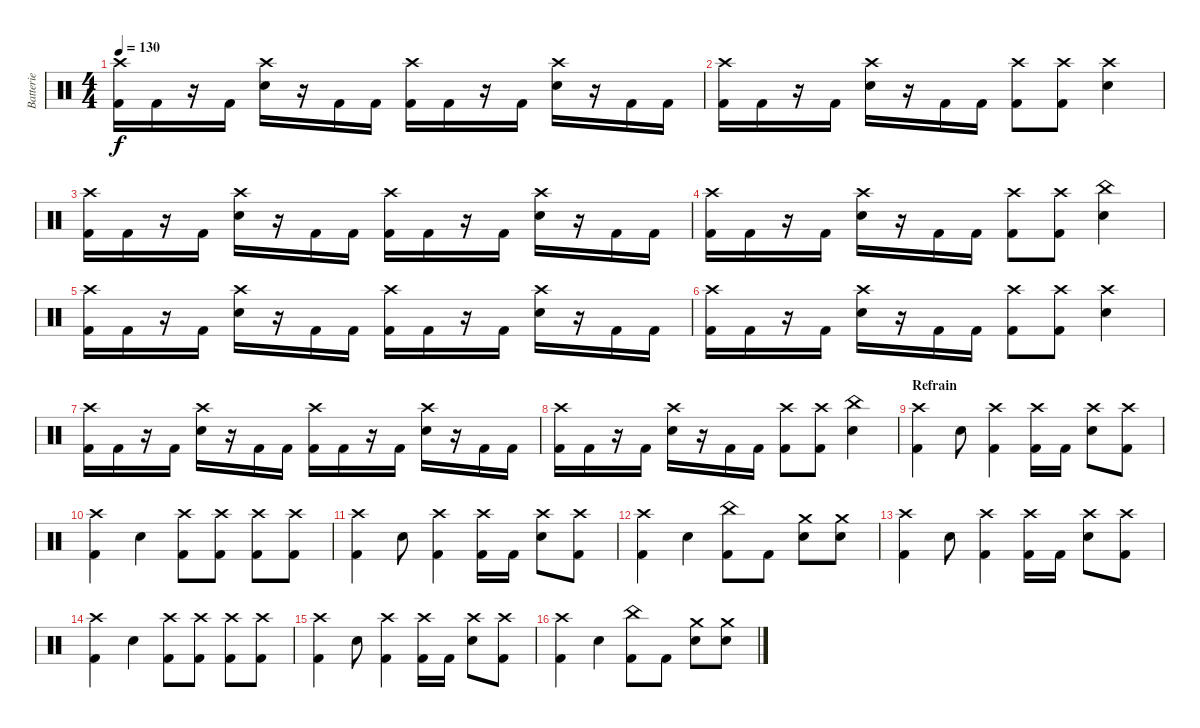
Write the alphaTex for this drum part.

\track ("Batterie" "Batterie") {instrument percussion}
\staff {score}
\articulation defaults
\ts (4 4)
\tempo 130
\clef neutral
\ks c
("Crash high (hit)" "Kick (hit) 2").16{dy f} "Kick (hit) 2".16 r.16 "Kick (hit) 2".16 ("Crash high (hit)" "Electric Snare (hit)").16 r.16 "Kick (hit) 2".16 "Kick (hit) 2".16 ("Crash high (hit)" "Kick (hit) 2").16 "Kick (hit) 2".16 r.16 "Kick (hit) 2".16 ("Crash high (hit)" "Electric Snare (hit)").16 r.16 "Kick (hit) 2".16 "Kick (hit) 2".16 |
("Crash high (hit)" "Kick (hit) 2").16 "Kick (hit) 2".16 r.16 "Kick (hit) 2".16 ("Crash high (hit)" "Electric Snare (hit)").16 r.16 "Kick (hit) 2".16 "Kick (hit) 2".16 ("Crash high (hit)" "Kick (hit) 2").8 ("Crash high (hit)" "Kick (hit) 2").8 ("Crash high (hit)" "Electric Snare (hit)").4 |
("Crash high (hit)" "Kick (hit) 2").16 "Kick (hit) 2".16 r.16 "Kick (hit) 2".16 ("Crash high (hit)" "Electric Snare (hit)").16 r.16 "Kick (hit) 2".16 "Kick (hit) 2".16 ("Crash high (hit)" "Kick (hit) 2").16 "Kick (hit) 2".16 r.16 "Kick (hit) 2".16 ("Crash high (hit)" "Electric Snare (hit)").16 r.16 "Kick (hit) 2".16 "Kick (hit) 2".16 |
("Crash high (hit)" "Kick (hit) 2").16 "Kick (hit) 2".16 r.16 "Kick (hit) 2".16 ("Crash high (hit)" "Electric Snare (hit)").16 r.16 "Kick (hit) 2".16 "Kick (hit) 2".16 ("Crash high (hit)" "Kick (hit) 2").8 ("Crash high (hit)" "Kick (hit) 2").8 ("China (hit)" "Electric Snare (hit)").4 |
("Crash high (hit)" "Kick (hit) 2").16 "Kick (hit) 2".16 r.16 "Kick (hit) 2".16 ("Crash high (hit)" "Electric Snare (hit)").16 r.16 "Kick (hit) 2".16 "Kick (hit) 2".16 ("Crash high (hit)" "Kick (hit) 2").16 "Kick (hit) 2".16 r.16 "Kick (hit) 2".16 ("Crash high (hit)" "Electric Snare (hit)").16 r.16 "Kick (hit) 2".16 "Kick (hit) 2".16 |
("Crash high (hit)" "Kick (hit) 2").16 "Kick (hit) 2".16 r.16 "Kick (hit) 2".16 ("Crash high (hit)" "Electric Snare (hit)").16 r.16 "Kick (hit) 2".16 "Kick (hit) 2".16 ("Crash high (hit)" "Kick (hit) 2").8 ("Crash high (hit)" "Kick (hit) 2").8 ("Crash high (hit)" "Electric Snare (hit)").4 |
("Crash high (hit)" "Kick (hit) 2").16 "Kick (hit) 2".16 r.16 "Kick (hit) 2".16 ("Crash high (hit)" "Electric Snare (hit)").16 r.16 "Kick (hit) 2".16 "Kick (hit) 2".16 ("Crash high (hit)" "Kick (hit) 2").16 "Kick (hit) 2".16 r.16 "Kick (hit) 2".16 ("Crash high (hit)" "Electric Snare (hit)").16 r.16 "Kick (hit) 2".16 "Kick (hit) 2".16 |
("Crash high (hit)" "Kick (hit) 2").16 "Kick (hit) 2".16 r.16 "Kick (hit) 2".16 ("Crash high (hit)" "Electric Snare (hit)").16 r.16 "Kick (hit) 2".16 "Kick (hit) 2".16 ("Crash high (hit)" "Kick (hit) 2").8 ("Crash high (hit)" "Kick (hit) 2").8 ("China (hit)" "Electric Snare (hit)").4 |
\section ("" "Refrain")
("Crash high (hit)" "Kick (hit) 2").4 "Electric Snare (hit)".8 ("Crash high (hit)" "Kick (hit) 2").4 ("Crash high (hit)" "Kick (hit) 2").16 "Kick (hit) 2".16 ("Crash high (hit)" "Electric Snare (hit)").8 ("Crash high (hit)" "Kick (hit) 2").8 |
("Crash high (hit)" "Kick (hit) 2").4 "Electric Snare (hit)".4 ("Crash high (hit)" "Kick (hit) 2").8 ("Crash high (hit)" "Kick (hit) 2").8 ("Crash high (hit)" "Kick (hit) 2").8 ("Crash high (hit)" "Kick (hit) 2").8 |
("Crash high (hit)" "Kick (hit) 2").4 "Electric Snare (hit)".8 ("Crash high (hit)" "Kick (hit) 2").4 ("Crash high (hit)" "Kick (hit) 2").16 "Kick (hit) 2".16 ("Crash high (hit)" "Electric Snare (hit)").8 ("Crash high (hit)" "Kick (hit) 2").8 |
("Crash high (hit)" "Kick (hit) 2").4 "Electric Snare (hit)".4 ("China (hit)" "Kick (hit) 2").8 "Kick (hit) 2".8 ("Crash medium (hit)" "Electric Snare (hit)").8 ("Crash medium (hit)" "Electric Snare (hit)").8 |
("Crash high (hit)" "Kick (hit) 2").4 "Electric Snare (hit)".8 ("Crash high (hit)" "Kick (hit) 2").4 ("Crash high (hit)" "Kick (hit) 2").16 "Kick (hit) 2".16 ("Crash high (hit)" "Electric Snare (hit)").8 ("Crash high (hit)" "Kick (hit) 2").8 |
("Crash high (hit)" "Kick (hit) 2").4 "Electric Snare (hit)".4 ("Crash high (hit)" "Kick (hit) 2").8 ("Crash high (hit)" "Kick (hit) 2").8 ("Crash high (hit)" "Kick (hit) 2").8 ("Crash high (hit)" "Kick (hit) 2").8 |
("Crash high (hit)" "Kick (hit) 2").4 "Electric Snare (hit)".8 ("Crash high (hit)" "Kick (hit) 2").4 ("Crash high (hit)" "Kick (hit) 2").16 "Kick (hit) 2".16 ("Crash high (hit)" "Electric Snare (hit)").8 ("Crash high (hit)" "Kick (hit) 2").8 |
("Crash high (hit)" "Kick (hit) 2").4 "Electric Snare (hit)".4 ("China (hit)" "Kick (hit) 2").8 "Kick (hit) 2".8 ("Crash medium (hit)" "Electric Snare (hit)").8 ("Crash medium (hit)" "Electric Snare (hit)").8
